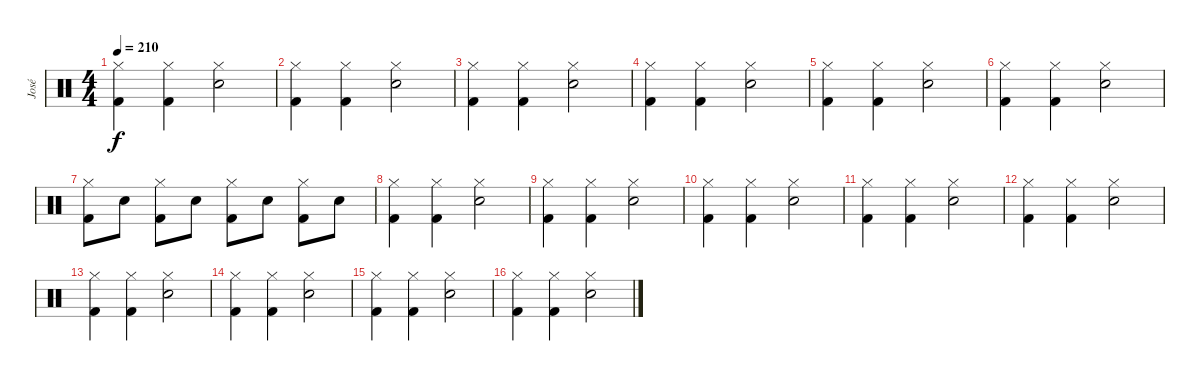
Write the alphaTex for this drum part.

\track ("José" "José") {instrument percussion}
\staff {score}
\articulation defaults
\ts (4 4)
\tempo 210
\clef neutral
\ks c
("Hi-Hat (closed)" "Kick (hit) 2").4{dy f} ("Hi-Hat (closed)" "Kick (hit) 2").4 ("Hi-Hat (closed)" "Electric Snare (hit)").2 |
("Hi-Hat (closed)" "Kick (hit) 2").4 ("Hi-Hat (closed)" "Kick (hit) 2").4 ("Hi-Hat (closed)" "Electric Snare (hit)").2 |
("Hi-Hat (closed)" "Kick (hit) 2").4 ("Hi-Hat (closed)" "Kick (hit) 2").4 ("Hi-Hat (closed)" "Electric Snare (hit)").2 |
("Hi-Hat (closed)" "Kick (hit) 2").4 ("Hi-Hat (closed)" "Kick (hit) 2").4 ("Hi-Hat (closed)" "Electric Snare (hit)").2 |
("Hi-Hat (closed)" "Kick (hit) 2").4 ("Hi-Hat (closed)" "Kick (hit) 2").4 ("Hi-Hat (closed)" "Electric Snare (hit)").2 |
("Hi-Hat (closed)" "Kick (hit) 2").4 ("Hi-Hat (closed)" "Kick (hit) 2").4 ("Hi-Hat (closed)" "Electric Snare (hit)").2 |
("Hi-Hat (closed)" "Kick (hit) 2").8 "Electric Snare (hit)".8 ("Hi-Hat (closed)" "Kick (hit) 2").8 "Electric Snare (hit)".8 ("Hi-Hat (closed)" "Kick (hit) 2").8 "Electric Snare (hit)".8 ("Hi-Hat (closed)" "Kick (hit) 2").8 "Electric Snare (hit)".8 |
("Hi-Hat (closed)" "Kick (hit) 2").4 ("Hi-Hat (closed)" "Kick (hit) 2").4 ("Hi-Hat (closed)" "Electric Snare (hit)").2 |
("Hi-Hat (closed)" "Kick (hit) 2").4 ("Hi-Hat (closed)" "Kick (hit) 2").4 ("Hi-Hat (closed)" "Electric Snare (hit)").2 |
("Hi-Hat (closed)" "Kick (hit) 2").4 ("Hi-Hat (closed)" "Kick (hit) 2").4 ("Hi-Hat (closed)" "Electric Snare (hit)").2 |
("Hi-Hat (closed)" "Kick (hit) 2").4 ("Hi-Hat (closed)" "Kick (hit) 2").4 ("Hi-Hat (closed)" "Electric Snare (hit)").2 |
("Hi-Hat (closed)" "Kick (hit) 2").4 ("Hi-Hat (closed)" "Kick (hit) 2").4 ("Hi-Hat (closed)" "Electric Snare (hit)").2 |
("Hi-Hat (closed)" "Kick (hit) 2").4 ("Hi-Hat (closed)" "Kick (hit) 2").4 ("Hi-Hat (closed)" "Electric Snare (hit)").2 |
("Hi-Hat (closed)" "Kick (hit) 2").4 ("Hi-Hat (closed)" "Kick (hit) 2").4 ("Hi-Hat (closed)" "Electric Snare (hit)").2 |
("Hi-Hat (closed)" "Kick (hit) 2").4 ("Hi-Hat (closed)" "Kick (hit) 2").4 ("Hi-Hat (closed)" "Electric Snare (hit)").2 |
("Hi-Hat (closed)" "Kick (hit) 2").4 ("Hi-Hat (closed)" "Kick (hit) 2").4 ("Hi-Hat (closed)" "Electric Snare (hit)").2
